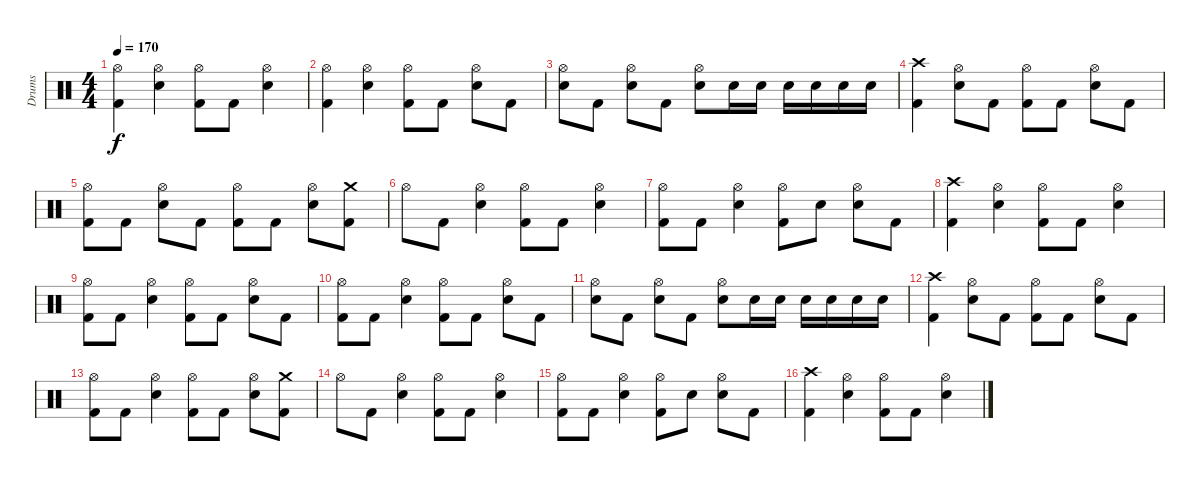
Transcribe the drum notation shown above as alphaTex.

\track ("Drums" "Drums") {instrument percussion}
\staff {score}
\articulation defaults
\ts (4 4)
\tempo 170
\clef neutral
\ks c
("Hi-Hat (open)" "Kick (hit) 2").4{dy f} ("Hi-Hat (open)" "Electric Snare (hit)").4 ("Hi-Hat (open)" "Kick (hit) 2").8 "Kick (hit) 2".8 ("Hi-Hat (open)" "Electric Snare (hit)").4 |
("Hi-Hat (open)" "Kick (hit) 2").4 ("Hi-Hat (open)" "Electric Snare (hit)").4 ("Hi-Hat (open)" "Kick (hit) 2").8 "Kick (hit) 2".8 ("Hi-Hat (open)" "Electric Snare (hit)").8 "Kick (hit) 2".8 |
("Hi-Hat (open)" "Electric Snare (hit)").8 "Kick (hit) 2".8 ("Hi-Hat (open)" "Electric Snare (hit)").8 "Kick (hit) 2".8 ("Hi-Hat (open)" "Electric Snare (hit)").8 "Electric Snare (hit)".16 "Electric Snare (hit)".16 "Electric Snare (hit)".16 "Electric Snare (hit)".16 "Electric Snare (hit)".16 "Electric Snare (hit)".16 |
("Crash high (hit)" "Kick (hit) 2").4 ("Hi-Hat (open)" "Electric Snare (hit)").8 "Kick (hit) 2".8 ("Hi-Hat (open)" "Kick (hit) 2").8 "Kick (hit) 2".8 ("Hi-Hat (open)" "Electric Snare (hit)").8 "Kick (hit) 2".8 |
("Hi-Hat (open)" "Kick (hit) 2").8 "Kick (hit) 2".8 ("Hi-Hat (open)" "Electric Snare (hit)").8 "Kick (hit) 2".8 ("Hi-Hat (open)" "Kick (hit) 2").8 "Kick (hit) 2".8 ("Hi-Hat (open)" "Electric Snare (hit)").8 ("Crash medium (hit)" "Kick (hit) 2").8 |
"Hi-Hat (open)".8 "Kick (hit) 2".8 ("Hi-Hat (open)" "Electric Snare (hit)").4 ("Hi-Hat (open)" "Kick (hit) 2").8 "Kick (hit) 2".8 ("Hi-Hat (open)" "Electric Snare (hit)").4 |
("Hi-Hat (open)" "Kick (hit) 2").8 "Kick (hit) 2".8 ("Hi-Hat (open)" "Electric Snare (hit)").4 ("Hi-Hat (open)" "Kick (hit) 2").8 "Electric Snare (hit)".8 ("Hi-Hat (open)" "Electric Snare (hit)").8 "Kick (hit) 2".8 |
("Crash high (hit)" "Kick (hit) 2").4 ("Hi-Hat (open)" "Electric Snare (hit)").4 ("Hi-Hat (open)" "Kick (hit) 2").8 "Kick (hit) 2".8 ("Hi-Hat (open)" "Electric Snare (hit)").4 |
("Hi-Hat (open)" "Kick (hit) 2").8 "Kick (hit) 2".8 ("Hi-Hat (open)" "Electric Snare (hit)").4 ("Hi-Hat (open)" "Kick (hit) 2").8 "Kick (hit) 2".8 ("Hi-Hat (open)" "Electric Snare (hit)").8 "Kick (hit) 2".8 |
("Hi-Hat (open)" "Kick (hit) 2").8 "Kick (hit) 2".8 ("Hi-Hat (open)" "Electric Snare (hit)").4 ("Hi-Hat (open)" "Kick (hit) 2").8 "Kick (hit) 2".8 ("Hi-Hat (open)" "Electric Snare (hit)").8 "Kick (hit) 2".8 |
("Hi-Hat (open)" "Electric Snare (hit)").8 "Kick (hit) 2".8 ("Hi-Hat (open)" "Electric Snare (hit)").8 "Kick (hit) 2".8 ("Hi-Hat (open)" "Electric Snare (hit)").8 "Electric Snare (hit)".16 "Electric Snare (hit)".16 "Electric Snare (hit)".16 "Electric Snare (hit)".16 "Electric Snare (hit)".16 "Electric Snare (hit)".16 |
("Crash high (hit)" "Kick (hit) 2").4 ("Hi-Hat (open)" "Electric Snare (hit)").8 "Kick (hit) 2".8 ("Hi-Hat (open)" "Kick (hit) 2").8 "Kick (hit) 2".8 ("Hi-Hat (open)" "Electric Snare (hit)").8 "Kick (hit) 2".8 |
("Hi-Hat (open)" "Kick (hit) 2").8 "Kick (hit) 2".8 ("Hi-Hat (open)" "Electric Snare (hit)").4 ("Hi-Hat (open)" "Kick (hit) 2").8 "Kick (hit) 2".8 ("Hi-Hat (open)" "Electric Snare (hit)").8 ("Crash medium (hit)" "Kick (hit) 2").8 |
"Hi-Hat (open)".8 "Kick (hit) 2".8 ("Hi-Hat (open)" "Electric Snare (hit)").4 ("Hi-Hat (open)" "Kick (hit) 2").8 "Kick (hit) 2".8 ("Hi-Hat (open)" "Electric Snare (hit)").4 |
("Hi-Hat (open)" "Kick (hit) 2").8 "Kick (hit) 2".8 ("Hi-Hat (open)" "Electric Snare (hit)").4 ("Hi-Hat (open)" "Kick (hit) 2").8 "Electric Snare (hit)".8 ("Hi-Hat (open)" "Electric Snare (hit)").8 "Kick (hit) 2".8 |
("Crash high (hit)" "Kick (hit) 2").4 ("Hi-Hat (open)" "Electric Snare (hit)").4 ("Hi-Hat (open)" "Kick (hit) 2").8 "Kick (hit) 2".8 ("Hi-Hat (open)" "Electric Snare (hit)").4
